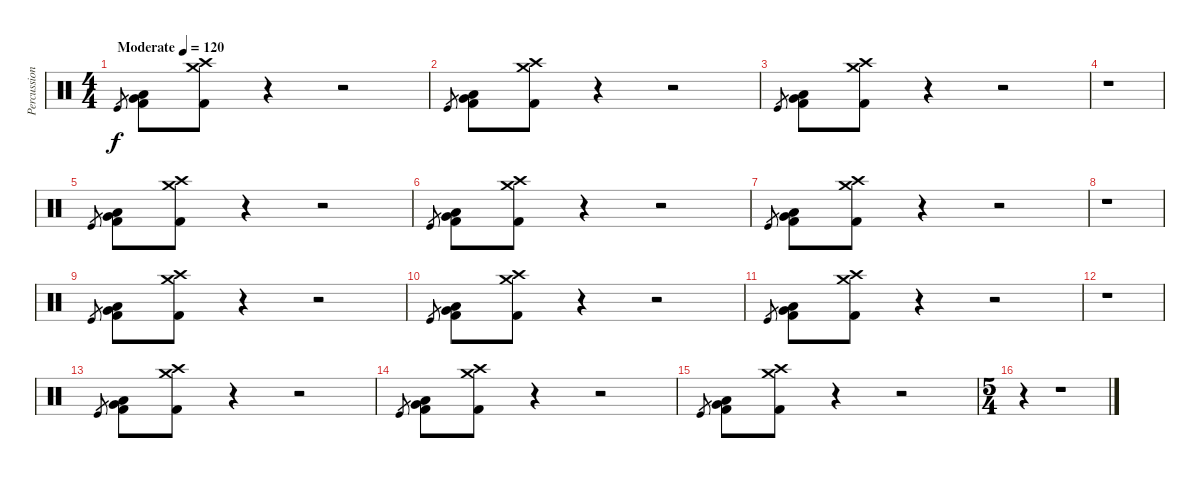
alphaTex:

\track ("Percussion" "Percussion") {solo instrument percussion}
\staff {score}
\articulation defaults
\ts (4 4)
\tempo (120 "Moderate")
\tempo 118
\tempo (120 "Moderate")
\clef neutral
\ks c "Kick (hit)".8{gr dy f}
("Very Low Tom (hit)" "Low Floor Tom (hit)" "Kick (hit) 2").8 ("Crash high (hit)" "Crash medium (hit)" "Kick (hit) 2").8 r.4 r.2 |
"Kick (hit)".8{gr} ("Very Low Tom (hit)" "Low Floor Tom (hit)" "Kick (hit) 2").8 ("Crash high (hit)" "Crash medium (hit)" "Kick (hit) 2").8 r.4 r.2 |
"Kick (hit)".8{gr} ("Very Low Tom (hit)" "Low Floor Tom (hit)" "Kick (hit) 2").8 ("Crash high (hit)" "Crash medium (hit)" "Kick (hit) 2").8 r.4 r.2 |
r.1 |
"Kick (hit)".8{gr} ("Very Low Tom (hit)" "Low Floor Tom (hit)" "Kick (hit) 2").8 ("Crash high (hit)" "Crash medium (hit)" "Kick (hit) 2").8 r.4 r.2 |
"Kick (hit)".8{gr} ("Very Low Tom (hit)" "Low Floor Tom (hit)" "Kick (hit) 2").8 ("Crash high (hit)" "Crash medium (hit)" "Kick (hit) 2").8 r.4 r.2 |
"Kick (hit)".8{gr} ("Very Low Tom (hit)" "Low Floor Tom (hit)" "Kick (hit) 2").8 ("Crash high (hit)" "Crash medium (hit)" "Kick (hit) 2").8 r.4 r.2 |
r.1 |
"Kick (hit)".8{gr} ("Very Low Tom (hit)" "Low Floor Tom (hit)" "Kick (hit) 2").8 ("Crash high (hit)" "Crash medium (hit)" "Kick (hit) 2").8 r.4 r.2 |
"Kick (hit)".8{gr} ("Very Low Tom (hit)" "Low Floor Tom (hit)" "Kick (hit) 2").8 ("Crash high (hit)" "Crash medium (hit)" "Kick (hit) 2").8 r.4 r.2 |
"Kick (hit)".8{gr} ("Very Low Tom (hit)" "Low Floor Tom (hit)" "Kick (hit) 2").8 ("Crash high (hit)" "Crash medium (hit)" "Kick (hit) 2").8 r.4 r.2 |
r.1 |
"Kick (hit)".8{gr} ("Very Low Tom (hit)" "Low Floor Tom (hit)" "Kick (hit) 2").8 ("Crash high (hit)" "Crash medium (hit)" "Kick (hit) 2").8 r.4 r.2 |
"Kick (hit)".8{gr} ("Very Low Tom (hit)" "Low Floor Tom (hit)" "Kick (hit) 2").8 ("Crash high (hit)" "Crash medium (hit)" "Kick (hit) 2").8 r.4 r.2 |
"Kick (hit)".8{gr} ("Very Low Tom (hit)" "Low Floor Tom (hit)" "Kick (hit) 2").8 ("Crash high (hit)" "Crash medium (hit)" "Kick (hit) 2").8 r.4 r.2 |
\ts (5 4)
r.4 r.1
